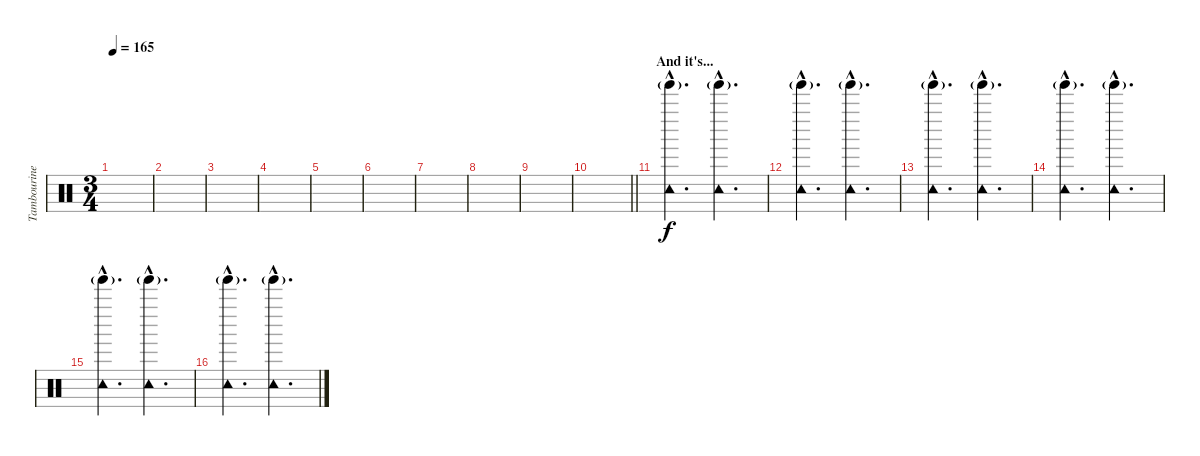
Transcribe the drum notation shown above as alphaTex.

\track ("Tambourine" "Tambourine") {instrument percussion}
\staff {score}
\articulation defaults
\ts (3 4)
\tempo 165
\clef neutral
\ks c
|
|
|
|
|
|
|
|
|
\barLineRight lightlight
|
\section ("" "And it's...")
("Tambourine (hit)"{hac} "Tinkle Bell (hit)"{g}).4{d} ("Tambourine (hit)"{hac} "Tinkle Bell (hit)"{g}).4{d} |
("Tambourine (hit)"{hac} "Tinkle Bell (hit)"{g}).4{d} ("Tambourine (hit)"{hac} "Tinkle Bell (hit)"{g}).4{d} |
("Tambourine (hit)"{hac} "Tinkle Bell (hit)"{g}).4{d} ("Tambourine (hit)"{hac} "Tinkle Bell (hit)"{g}).4{d} |
("Tambourine (hit)"{hac} "Tinkle Bell (hit)"{g}).4{d} ("Tambourine (hit)"{hac} "Tinkle Bell (hit)"{g}).4{d} |
("Tambourine (hit)"{hac} "Tinkle Bell (hit)"{g}).4{d} ("Tambourine (hit)"{hac} "Tinkle Bell (hit)"{g}).4{d} |
("Tambourine (hit)"{hac} "Tinkle Bell (hit)"{g}).4{d} ("Tambourine (hit)"{hac} "Tinkle Bell (hit)"{g}).4{d}
